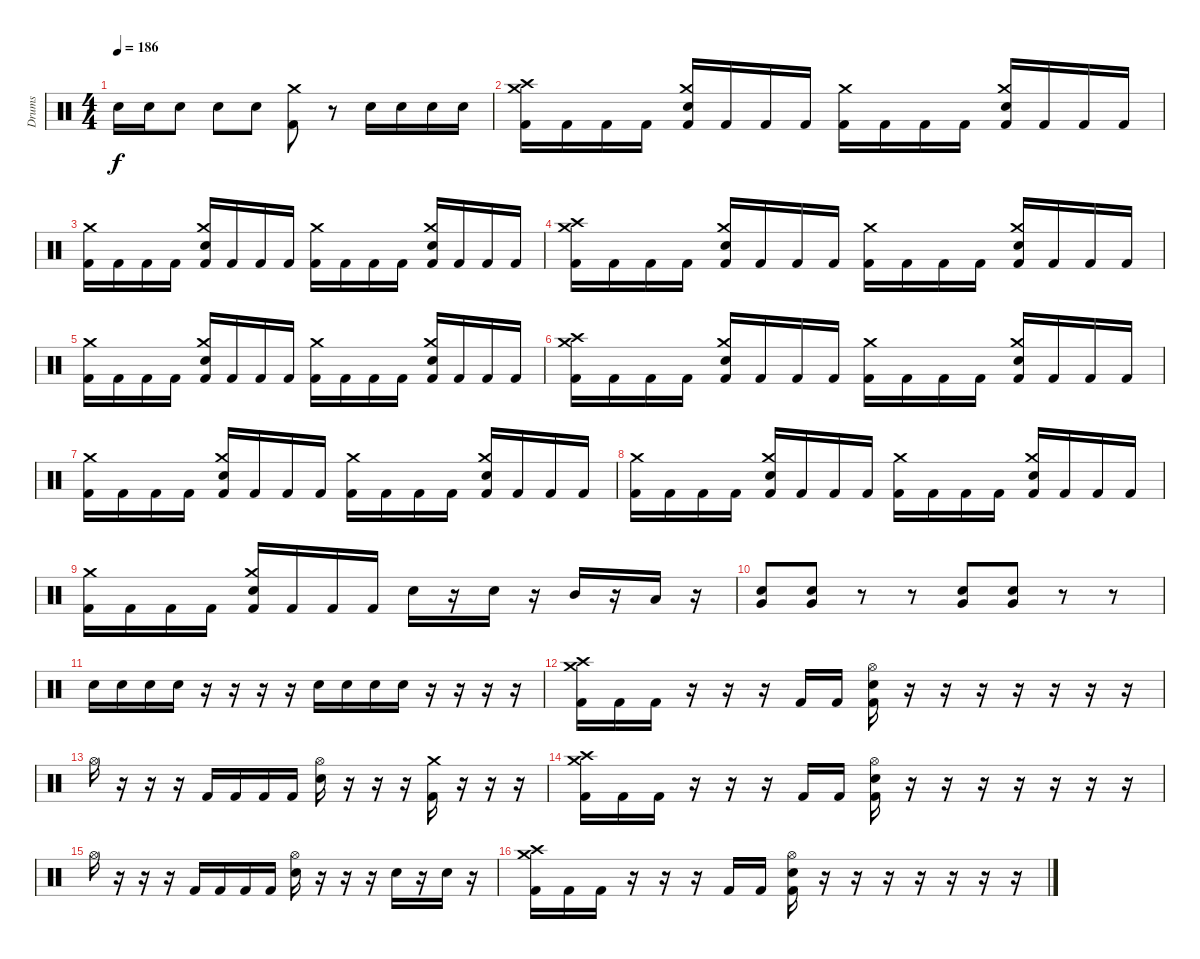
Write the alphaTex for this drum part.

\track ("Drums" "Drums") {instrument percussion}
\staff {score}
\articulation defaults
\ts (4 4)
\tempo 186
\clef neutral
\ks c "Snare (hit) 2".16{dy f} "Snare (hit) 2".16 "Snare (hit) 2".8 "Snare (hit) 2".8 "Snare (hit) 2".8
("Crash medium (hit)" "Kick (hit) 2").8 r.8 "Snare (hit) 2".16 "Snare (hit) 2".16 "Snare (hit) 2".16 "Snare (hit) 2".16 |
("Crash high (hit)" "Crash medium (hit)" "Kick (hit) 2").16 "Kick (hit) 2".16 "Kick (hit) 2".16 "Kick (hit) 2".16 ("Crash medium (hit)" "Snare (hit) 2" "Kick (hit) 2").16 "Kick (hit) 2".16 "Kick (hit) 2".16 "Kick (hit) 2".16 ("Crash medium (hit)" "Kick (hit) 2").16 "Kick (hit) 2".16 "Kick (hit) 2".16 "Kick (hit) 2".16 ("Crash medium (hit)" "Snare (hit) 2" "Kick (hit) 2").16 "Kick (hit) 2".16 "Kick (hit) 2".16 "Kick (hit) 2".16 |
("Crash medium (hit)" "Kick (hit) 2").16 "Kick (hit) 2".16 "Kick (hit) 2".16 "Kick (hit) 2".16 ("Crash medium (hit)" "Snare (hit) 2" "Kick (hit) 2").16 "Kick (hit) 2".16 "Kick (hit) 2".16 "Kick (hit) 2".16 ("Crash medium (hit)" "Kick (hit) 2").16 "Kick (hit) 2".16 "Kick (hit) 2".16 "Kick (hit) 2".16 ("Crash medium (hit)" "Snare (hit) 2" "Kick (hit) 2").16 "Kick (hit) 2".16 "Kick (hit) 2".16 "Kick (hit) 2".16 |
("Crash high (hit)" "Crash medium (hit)" "Kick (hit) 2").16 "Kick (hit) 2".16 "Kick (hit) 2".16 "Kick (hit) 2".16 ("Crash medium (hit)" "Snare (hit) 2" "Kick (hit) 2").16 "Kick (hit) 2".16 "Kick (hit) 2".16 "Kick (hit) 2".16 ("Crash medium (hit)" "Kick (hit) 2").16 "Kick (hit) 2".16 "Kick (hit) 2".16 "Kick (hit) 2".16 ("Crash medium (hit)" "Snare (hit) 2" "Kick (hit) 2").16 "Kick (hit) 2".16 "Kick (hit) 2".16 "Kick (hit) 2".16 |
("Crash medium (hit)" "Kick (hit) 2").16 "Kick (hit) 2".16 "Kick (hit) 2".16 "Kick (hit) 2".16 ("Crash medium (hit)" "Snare (hit) 2" "Kick (hit) 2").16 "Kick (hit) 2".16 "Kick (hit) 2".16 "Kick (hit) 2".16 ("Crash medium (hit)" "Kick (hit) 2").16 "Kick (hit) 2".16 "Kick (hit) 2".16 "Kick (hit) 2".16 ("Crash medium (hit)" "Snare (hit) 2" "Kick (hit) 2").16 "Kick (hit) 2".16 "Kick (hit) 2".16 "Kick (hit) 2".16 |
("Crash high (hit)" "Crash medium (hit)" "Kick (hit) 2").16 "Kick (hit) 2".16 "Kick (hit) 2".16 "Kick (hit) 2".16 ("Crash medium (hit)" "Snare (hit) 2" "Kick (hit) 2").16 "Kick (hit) 2".16 "Kick (hit) 2".16 "Kick (hit) 2".16 ("Crash medium (hit)" "Kick (hit) 2").16 "Kick (hit) 2".16 "Kick (hit) 2".16 "Kick (hit) 2".16 ("Crash medium (hit)" "Snare (hit) 2" "Kick (hit) 2").16 "Kick (hit) 2".16 "Kick (hit) 2".16 "Kick (hit) 2".16 |
("Crash medium (hit)" "Kick (hit) 2").16 "Kick (hit) 2".16 "Kick (hit) 2".16 "Kick (hit) 2".16 ("Crash medium (hit)" "Snare (hit) 2" "Kick (hit) 2").16 "Kick (hit) 2".16 "Kick (hit) 2".16 "Kick (hit) 2".16 ("Crash medium (hit)" "Kick (hit) 2").16 "Kick (hit) 2".16 "Kick (hit) 2".16 "Kick (hit) 2".16 ("Crash medium (hit)" "Snare (hit) 2" "Kick (hit) 2").16 "Kick (hit) 2".16 "Kick (hit) 2".16 "Kick (hit) 2".16 |
("Crash medium (hit)" "Kick (hit) 2").16 "Kick (hit) 2".16 "Kick (hit) 2".16 "Kick (hit) 2".16 ("Crash medium (hit)" "Snare (hit) 2" "Kick (hit) 2").16 "Kick (hit) 2".16 "Kick (hit) 2".16 "Kick (hit) 2".16 ("Crash medium (hit)" "Kick (hit) 2").16 "Kick (hit) 2".16 "Kick (hit) 2".16 "Kick (hit) 2".16 ("Crash medium (hit)" "Snare (hit) 2" "Kick (hit) 2").16 "Kick (hit) 2".16 "Kick (hit) 2".16 "Kick (hit) 2".16 |
("Crash medium (hit)" "Kick (hit) 2").16 "Kick (hit) 2".16 "Kick (hit) 2".16 "Kick (hit) 2".16 ("Crash medium (hit)" "Snare (hit) 2" "Kick (hit) 2").16 "Kick (hit) 2".16 "Kick (hit) 2".16 "Kick (hit) 2".16 "Snare (hit) 2".16 r.16 "Snare (hit) 2".16 r.16 "Mid Tom (hit)".16 r.16 "Low Tom (hit)".16 r.16 |
("Very Low Tom (hit)" "Snare (hit) 2").8 ("Very Low Tom (hit)" "Snare (hit) 2").8 r.8 r.8 ("Very Low Tom (hit)" "Snare (hit) 2").8 ("Very Low Tom (hit)" "Snare (hit) 2").8 r.8 r.8 |
"Snare (hit) 2".16 "Snare (hit) 2".16 "Snare (hit) 2".16 "Snare (hit) 2".16 r.16 r.16 r.16 r.16 "Snare (hit) 2".16 "Snare (hit) 2".16 "Snare (hit) 2".16 "Snare (hit) 2".16 r.16 r.16 r.16 r.16 |
("Crash high (hit)" "Crash medium (hit)" "Kick (hit) 2").16 "Kick (hit) 2".16 "Kick (hit) 2".16 r.16 r.16 r.16 "Kick (hit) 2".16 "Kick (hit) 2".16 ("Hi-Hat (open)" "Snare (hit) 2" "Kick (hit) 2").16 r.16 r.16 r.16 r.16 r.16 r.16 r.16 |
"Hi-Hat (open)".16 r.16 r.16 r.16 "Kick (hit) 2".16 "Kick (hit) 2".16 "Kick (hit) 2".16 "Kick (hit) 2".16 ("Hi-Hat (open)" "Snare (hit) 2").16 r.16 r.16 r.16 ("Crash medium (hit)" "Kick (hit) 2").16 r.16 r.16 r.16 |
("Crash high (hit)" "Crash medium (hit)" "Kick (hit) 2").16 "Kick (hit) 2".16 "Kick (hit) 2".16 r.16 r.16 r.16 "Kick (hit) 2".16 "Kick (hit) 2".16 ("Hi-Hat (open)" "Snare (hit) 2" "Kick (hit) 2").16 r.16 r.16 r.16 r.16 r.16 r.16 r.16 |
"Hi-Hat (open)".16 r.16 r.16 r.16 "Kick (hit) 2".16 "Kick (hit) 2".16 "Kick (hit) 2".16 "Kick (hit) 2".16 ("Hi-Hat (open)" "Snare (hit) 2").16 r.16 r.16 r.16 "Snare (hit) 2".16 r.16 "Snare (hit) 2".16 r.16 |
("Crash high (hit)" "Crash medium (hit)" "Kick (hit) 2").16 "Kick (hit) 2".16 "Kick (hit) 2".16 r.16 r.16 r.16 "Kick (hit) 2".16 "Kick (hit) 2".16 ("Hi-Hat (open)" "Snare (hit) 2" "Kick (hit) 2").16 r.16 r.16 r.16 r.16 r.16 r.16 r.16
